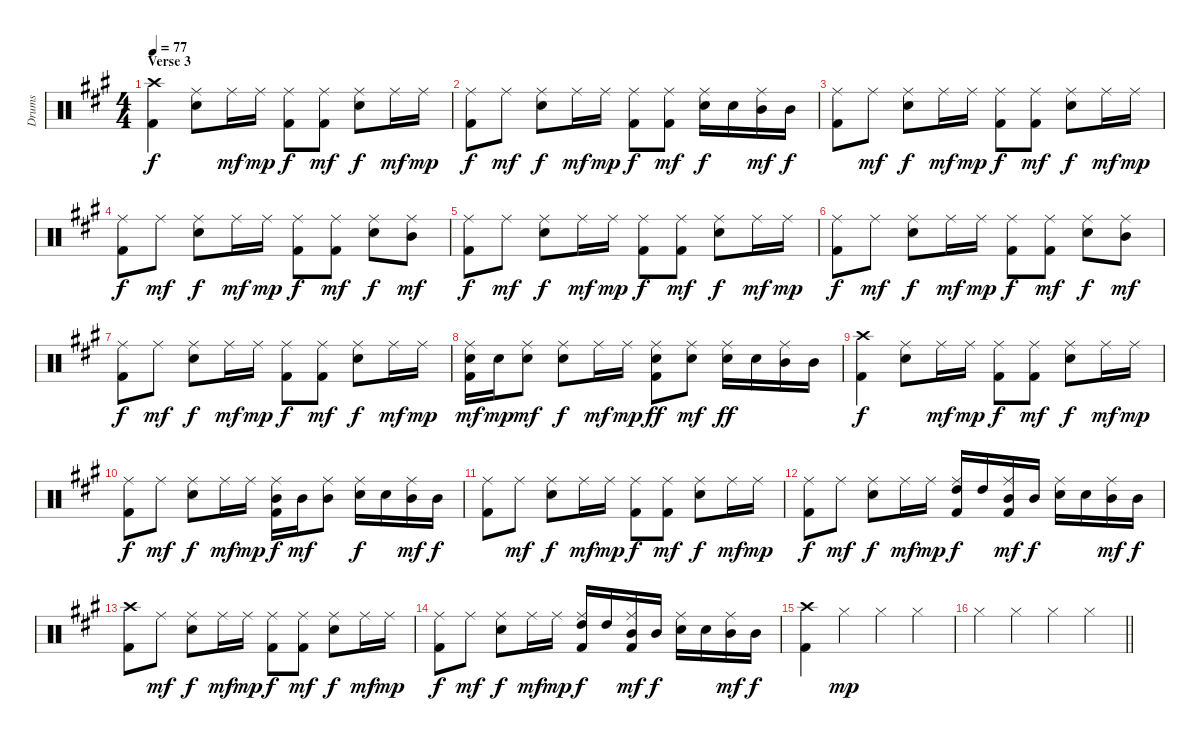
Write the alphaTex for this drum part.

\track ("Drums" "Drums") {instrument percussion}
\staff {score}
\articulation defaults
\ts (4 4)
\section ("" "Verse 3")
\tempo 77
\clef neutral
\ks a
("Crash high (hit)" "Kick (hit) 2").4{dy f} ("Ride (middle)" "Electric Snare (hit)").8 "Ride (middle)".16{dy mf} "Ride (middle)".16{dy mp} ("Ride (middle)" "Kick (hit) 2").8{dy f} ("Ride (middle)" "Kick (hit) 2").8{dy mf} ("Ride (middle)" "Electric Snare (hit)").8{dy f} "Ride (middle)".16{dy mf} "Ride (middle)".16{dy mp} |
("Ride (middle)" "Kick (hit) 2").8{dy f} "Ride (middle)".8{dy mf} ("Ride (middle)" "Electric Snare (hit)").8{dy f} "Ride (middle)".16{dy mf} "Ride (middle)".16{dy mp} ("Ride (middle)" "Kick (hit) 2").8{dy f} ("Ride (middle)" "Kick (hit) 2").8{dy mf} ("Ride (middle)" "Electric Snare (hit)").16{dy f} "Electric Snare (hit)".16 ("Ride (middle)" "Mid Tom (hit)").16{dy mf} "Mid Tom (hit)".16{dy f} |
("Ride (middle)" "Kick (hit) 2").8 "Ride (middle)".8{dy mf} ("Ride (middle)" "Electric Snare (hit)").8{dy f} "Ride (middle)".16{dy mf} "Ride (middle)".16{dy mp} ("Ride (middle)" "Kick (hit) 2").8{dy f} ("Ride (middle)" "Kick (hit) 2").8{dy mf} ("Ride (middle)" "Electric Snare (hit)").8{dy f} "Ride (middle)".16{dy mf} "Ride (middle)".16{dy mp} |
("Ride (middle)" "Kick (hit) 2").8{dy f} "Ride (middle)".8{dy mf} ("Ride (middle)" "Electric Snare (hit)").8{dy f} "Ride (middle)".16{dy mf} "Ride (middle)".16{dy mp} ("Ride (middle)" "Kick (hit) 2").8{dy f} ("Ride (middle)" "Kick (hit) 2").8{dy mf} ("Ride (middle)" "Electric Snare (hit)").8{dy f} ("Ride (middle)" "Mid Tom (hit)").8{dy mf} |
("Ride (middle)" "Kick (hit) 2").8{dy f} "Ride (middle)".8{dy mf} ("Ride (middle)" "Electric Snare (hit)").8{dy f} "Ride (middle)".16{dy mf} "Ride (middle)".16{dy mp} ("Ride (middle)" "Kick (hit) 2").8{dy f} ("Ride (middle)" "Kick (hit) 2").8{dy mf} ("Ride (middle)" "Electric Snare (hit)").8{dy f} "Ride (middle)".16{dy mf} "Ride (middle)".16{dy mp} |
("Ride (middle)" "Kick (hit) 2").8{dy f} "Ride (middle)".8{dy mf} ("Ride (middle)" "Electric Snare (hit)").8{dy f} "Ride (middle)".16{dy mf} "Ride (middle)".16{dy mp} ("Ride (middle)" "Kick (hit) 2").8{dy f} ("Ride (middle)" "Kick (hit) 2").8{dy mf} ("Ride (middle)" "Electric Snare (hit)").8{dy f} ("Ride (middle)" "Mid Tom (hit)").8{dy mf} |
("Ride (middle)" "Kick (hit) 2").8{dy f} "Ride (middle)".8{dy mf} ("Ride (middle)" "Electric Snare (hit)").8{dy f} "Ride (middle)".16{dy mf} "Ride (middle)".16{dy mp} ("Ride (middle)" "Kick (hit) 2").8{dy f} ("Ride (middle)" "Kick (hit) 2").8{dy mf} ("Ride (middle)" "Electric Snare (hit)").8{dy f} "Ride (middle)".16{dy mf} "Ride (middle)".16{dy mp} |
("Ride (middle)" "Electric Snare (hit)" "Kick (hit) 2").16{dy mf} "Electric Snare (hit)".16{dy mp} ("Ride (middle)" "Electric Snare (hit)").8{dy mf} ("Ride (middle)" "Electric Snare (hit)").8{dy f} "Ride (middle)".16{dy mf} "Ride (middle)".16{dy mp} ("Ride (middle)" "Electric Snare (hit)" "Kick (hit) 2").8{dy ff} ("Ride (middle)" "Electric Snare (hit)").8{dy mf} ("Ride (middle)" "Electric Snare (hit)").16{dy ff} "Electric Snare (hit)".16 ("Ride (middle)" "Mid Tom (hit)").16 "Mid Tom (hit)".16 |
("Crash high (hit)" "Kick (hit) 2").4{dy f} ("Ride (middle)" "Electric Snare (hit)").8 "Ride (middle)".16{dy mf} "Ride (middle)".16{dy mp} ("Ride (middle)" "Kick (hit) 2").8{dy f} ("Ride (middle)" "Kick (hit) 2").8{dy mf} ("Ride (middle)" "Electric Snare (hit)").8{dy f} "Ride (middle)".16{dy mf} "Ride (middle)".16{dy mp} |
("Ride (middle)" "Kick (hit) 2").8{dy f} "Ride (middle)".8{dy mf} ("Ride (middle)" "Electric Snare (hit)").8{dy f} "Ride (middle)".16{dy mf} "Ride (middle)".16{dy mp} ("Ride (middle)" "Mid Tom (hit)" "Kick (hit) 2").16{dy f} "Mid Tom (hit)".16{dy mf} ("Ride (middle)" "Mid Tom (hit)").8 ("Ride (middle)" "Electric Snare (hit)").16{dy f} "Electric Snare (hit)".16 ("Ride (middle)" "Mid Tom (hit)").16{dy mf} "Mid Tom (hit)".16{dy f} |
("Ride (middle)" "Kick (hit) 2").8 "Ride (middle)".8{dy mf} ("Ride (middle)" "Electric Snare (hit)").8{dy f} "Ride (middle)".16{dy mf} "Ride (middle)".16{dy mp} ("Ride (middle)" "Kick (hit) 2").8{dy f} ("Ride (middle)" "Kick (hit) 2").8{dy mf} ("Ride (middle)" "Electric Snare (hit)").8{dy f} "Ride (middle)".16{dy mf} "Ride (middle)".16{dy mp} |
("Ride (middle)" "Kick (hit) 2").8{dy f} "Ride (middle)".8{dy mf} ("Ride (middle)" "Electric Snare (hit)").8{dy f} "Ride (middle)".16{dy mf} "Ride (middle)".16{dy mp} ("Ride (middle)" "High Tom (hit)" "Kick (hit) 2").16{dy f} "High Tom (hit)".16 ("Ride (middle)" "Mid Tom (hit)" "Kick (hit) 2").16{dy mf} "Mid Tom (hit)".16{dy f} ("Ride (middle)" "Electric Snare (hit)").16 "Electric Snare (hit)".16 ("Ride (middle)" "Mid Tom (hit)").16{dy mf} "Mid Tom (hit)".16{dy f} |
("Crash high (hit)" "Kick (hit) 2").8 "Ride (middle)".8{dy mf} ("Ride (middle)" "Electric Snare (hit)").8{dy f} "Ride (middle)".16{dy mf} "Ride (middle)".16{dy mp} ("Ride (middle)" "Kick (hit) 2").8{dy f} ("Ride (middle)" "Kick (hit) 2").8{dy mf} ("Ride (middle)" "Electric Snare (hit)").8{dy f} "Ride (middle)".16{dy mf} "Ride (middle)".16{dy mp} |
("Ride (middle)" "Kick (hit) 2").8{dy f} "Ride (middle)".8{dy mf} ("Ride (middle)" "Electric Snare (hit)").8{dy f} "Ride (middle)".16{dy mf} "Ride (middle)".16{dy mp} ("Ride (middle)" "High Tom (hit)" "Kick (hit) 2").16{dy f} "High Tom (hit)".16 ("Ride (middle)" "Mid Tom (hit)" "Kick (hit) 2").16{dy mf} "Mid Tom (hit)".16{dy f} ("Ride (middle)" "Electric Snare (hit)").16 "Electric Snare (hit)".16 ("Ride (middle)" "Mid Tom (hit)").16{dy mf} "Mid Tom (hit)".16{dy f} |
("Crash high (hit)" "Kick (hit) 2").4 "Hi-Hat (closed)".4{dy mp} "Hi-Hat (closed)".4 "Hi-Hat (closed)".4 |
\barLineRight lightlight "Hi-Hat (closed)".4 "Hi-Hat (closed)".4 "Hi-Hat (closed)".4 "Hi-Hat (closed)".4
